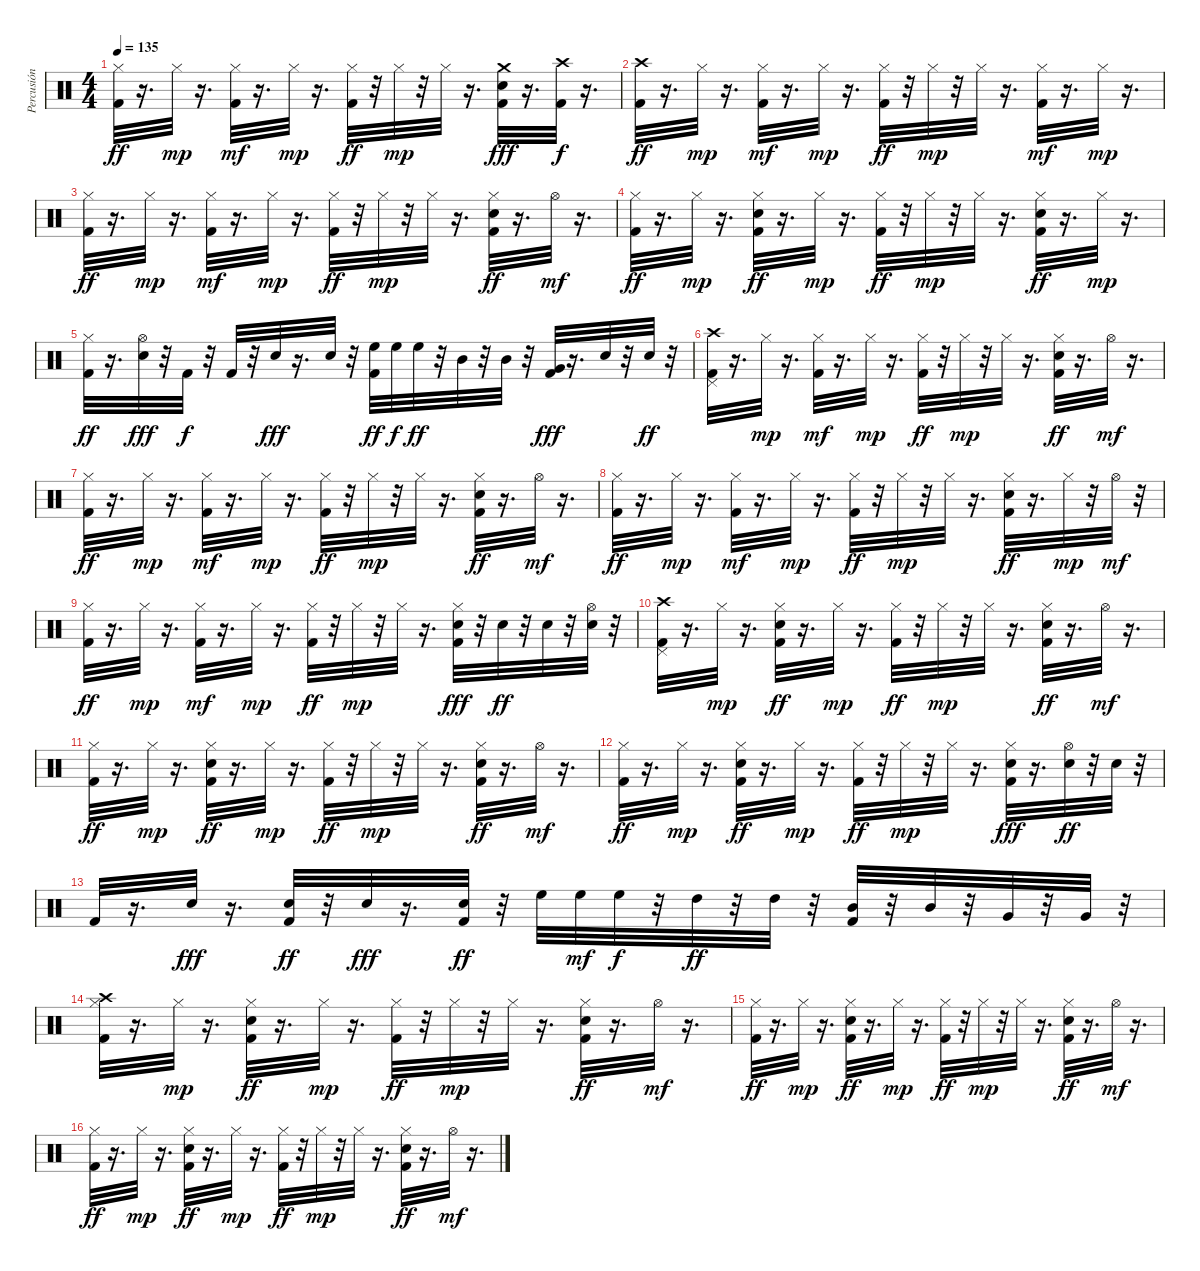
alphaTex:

\track ("Percusión" "Percusión") {instrument percussion}
\staff {score}
\articulation defaults
\ts (4 4)
\tempo 135
\clef neutral
\ks c
("Hi-Hat (closed)" "Kick (hit) 2").32{dy ff} r.16{d} "Hi-Hat (closed)".32{dy mp} r.16{d} ("Hi-Hat (closed)" "Kick (hit) 2").32{dy mf} r.16{d} "Hi-Hat (closed)".32{dy mp} r.16{d} ("Hi-Hat (closed)" "Kick (hit) 2").32{dy ff} r.32 "Hi-Hat (closed)".32{dy mp} r.32 "Hi-Hat (closed)".32 r.16{d} ("Crash medium (hit)" "Electric Snare (hit)" "Kick (hit) 2").32{dy fff} r.16{d} ("Crash high (hit)" "Kick (hit) 2").32{dy f} r.16{d} |
("Crash high (hit)" "Kick (hit) 2").32{dy ff} r.16{d} "Hi-Hat (closed)".32{dy mp} r.16{d} ("Hi-Hat (closed)" "Kick (hit) 2").32{dy mf} r.16{d} "Hi-Hat (closed)".32{dy mp} r.16{d} ("Hi-Hat (closed)" "Kick (hit) 2").32{dy ff} r.32 "Hi-Hat (closed)".32{dy mp} r.32 "Hi-Hat (closed)".32 r.16{d} ("Hi-Hat (closed)" "Kick (hit) 2").32{dy mf} r.16{d} "Hi-Hat (closed)".32{dy mp} r.16{d} |
("Hi-Hat (closed)" "Kick (hit) 2").32{dy ff} r.16{d} "Hi-Hat (closed)".32{dy mp} r.16{d} ("Hi-Hat (closed)" "Kick (hit) 2").32{dy mf} r.16{d} "Hi-Hat (closed)".32{dy mp} r.16{d} ("Hi-Hat (closed)" "Kick (hit) 2").32{dy ff} r.32 "Hi-Hat (closed)".32{dy mp} r.32 "Hi-Hat (closed)".32 r.16{d} ("Hi-Hat (closed)" "Electric Snare (hit)" "Kick (hit) 2").32{dy ff} r.16{d} "Hi-Hat (open)".32{dy mf} r.16{d} |
("Hi-Hat (closed)" "Kick (hit) 2").32{dy ff} r.16{d} "Hi-Hat (closed)".32{dy mp} r.16{d} ("Hi-Hat (closed)" "Electric Snare (hit)" "Kick (hit) 2").32{dy ff} r.16{d} "Hi-Hat (closed)".32{dy mp} r.16{d} ("Hi-Hat (closed)" "Kick (hit) 2").32{dy ff} r.32 "Hi-Hat (closed)".32{dy mp} r.32 "Hi-Hat (closed)".32 r.16{d} ("Hi-Hat (closed)" "Electric Snare (hit)" "Kick (hit) 2").32{dy ff} r.16{d} "Hi-Hat (closed)".32{dy mp} r.16{d} |
("Hi-Hat (closed)" "Kick (hit) 2").32{dy ff} r.16{d} ("Hi-Hat (open)" "Electric Snare (hit)").32{dy fff} r.32 "Kick (hit) 2".32{dy f} r.32 "Kick (hit) 2".32 r.32 "Electric Snare (hit)".32{dy fff} r.16{d} "Electric Snare (hit)".32 r.32 ("High Floor Tom (hit)" "Kick (hit) 2").32{dy ff} "High Floor Tom (hit)".32{dy f} "High Floor Tom (hit)".32{dy ff} r.32 "Mid Tom (hit)".32 r.32 "Mid Tom (hit)".32 r.32 ("Very Low Tom (hit)" "Kick (hit) 2").32{dy fff} r.16{d} "Electric Snare (hit)".32 r.32 "Electric Snare (hit)".32{dy ff} r.32 |
("Crash high (hit)" "Pedal Hi-Hat (hit)" "Kick (hit) 2").32 r.16{d} "Hi-Hat (closed)".32{dy mp} r.16{d} ("Hi-Hat (closed)" "Kick (hit) 2").32{dy mf} r.16{d} "Hi-Hat (closed)".32{dy mp} r.16{d} ("Hi-Hat (closed)" "Kick (hit) 2").32{dy ff} r.32 "Hi-Hat (closed)".32{dy mp} r.32 "Hi-Hat (closed)".32 r.16{d} ("Hi-Hat (closed)" "Electric Snare (hit)" "Kick (hit) 2").32{dy ff} r.16{d} "Hi-Hat (open)".32{dy mf} r.16{d} |
("Hi-Hat (closed)" "Kick (hit) 2").32{dy ff} r.16{d} "Hi-Hat (closed)".32{dy mp} r.16{d} ("Hi-Hat (closed)" "Kick (hit) 2").32{dy mf} r.16{d} "Hi-Hat (closed)".32{dy mp} r.16{d} ("Hi-Hat (closed)" "Kick (hit) 2").32{dy ff} r.32 "Hi-Hat (closed)".32{dy mp} r.32 "Hi-Hat (closed)".32 r.16{d} ("Hi-Hat (closed)" "Electric Snare (hit)" "Kick (hit) 2").32{dy ff} r.16{d} "Hi-Hat (open)".32{dy mf} r.16{d} |
("Hi-Hat (closed)" "Kick (hit) 2").32{dy ff} r.16{d} "Hi-Hat (closed)".32{dy mp} r.16{d} ("Hi-Hat (closed)" "Kick (hit) 2").32{dy mf} r.16{d} "Hi-Hat (closed)".32{dy mp} r.16{d} ("Hi-Hat (closed)" "Kick (hit) 2").32{dy ff} r.32 "Hi-Hat (closed)".32{dy mp} r.32 "Hi-Hat (closed)".32 r.16{d} ("Hi-Hat (closed)" "Electric Snare (hit)" "Kick (hit) 2").32{dy ff} r.16{d} "Hi-Hat (closed)".32{dy mp} r.32 "Hi-Hat (open)".32{dy mf} r.32 |
("Hi-Hat (closed)" "Kick (hit) 2").32{dy ff} r.16{d} "Hi-Hat (closed)".32{dy mp} r.16{d} ("Hi-Hat (closed)" "Kick (hit) 2").32{dy mf} r.16{d} "Hi-Hat (closed)".32{dy mp} r.16{d} ("Hi-Hat (closed)" "Kick (hit) 2").32{dy ff} r.32 "Hi-Hat (closed)".32{dy mp} r.32 "Hi-Hat (closed)".32 r.16{d} ("Hi-Hat (closed)" "Electric Snare (hit)" "Kick (hit) 2").32{dy fff} r.32 "Electric Snare (hit)".32{dy ff} r.32 "Electric Snare (hit)".32 r.32 ("Hi-Hat (open)" "Electric Snare (hit)").32 r.32 |
("Crash high (hit)" "Pedal Hi-Hat (hit)" "Kick (hit) 2").32 r.16{d} "Hi-Hat (closed)".32{dy mp} r.16{d} ("Hi-Hat (closed)" "Electric Snare (hit)" "Kick (hit) 2").32{dy ff} r.16{d} "Hi-Hat (closed)".32{dy mp} r.16{d} ("Hi-Hat (closed)" "Kick (hit) 2").32{dy ff} r.32 "Hi-Hat (closed)".32{dy mp} r.32 "Hi-Hat (closed)".32 r.16{d} ("Hi-Hat (closed)" "Electric Snare (hit)" "Kick (hit) 2").32{dy ff} r.16{d} "Hi-Hat (open)".32{dy mf} r.16{d} |
("Hi-Hat (closed)" "Kick (hit) 2").32{dy ff} r.16{d} "Hi-Hat (closed)".32{dy mp} r.16{d} ("Hi-Hat (closed)" "Electric Snare (hit)" "Kick (hit) 2").32{dy ff} r.16{d} "Hi-Hat (closed)".32{dy mp} r.16{d} ("Hi-Hat (closed)" "Kick (hit) 2").32{dy ff} r.32 "Hi-Hat (closed)".32{dy mp} r.32 "Hi-Hat (closed)".32 r.16{d} ("Hi-Hat (closed)" "Electric Snare (hit)" "Kick (hit) 2").32{dy ff} r.16{d} "Hi-Hat (open)".32{dy mf} r.16{d} |
("Hi-Hat (closed)" "Kick (hit) 2").32{dy ff} r.16{d} "Hi-Hat (closed)".32{dy mp} r.16{d} ("Hi-Hat (closed)" "Electric Snare (hit)" "Kick (hit) 2").32{dy ff} r.16{d} "Hi-Hat (closed)".32{dy mp} r.16{d} ("Hi-Hat (closed)" "Kick (hit) 2").32{dy ff} r.32 "Hi-Hat (closed)".32{dy mp} r.32 "Hi-Hat (closed)".32 r.16{d} ("Hi-Hat (closed)" "Electric Snare (hit)" "Kick (hit) 2").32{dy fff} r.16{d} ("Hi-Hat (open)" "Electric Snare (hit)").32{dy ff} r.32 "Electric Snare (hit)".32 r.32 |
"Kick (hit) 2".32 r.16{d} "Electric Snare (hit)".32{dy fff} r.16{d} ("Electric Snare (hit)" "Kick (hit) 2").32{dy ff} r.32 "Electric Snare (hit)".32{dy fff} r.16{d} ("Electric Snare (hit)" "Kick (hit) 2").32{dy ff} r.32 "High Floor Tom (hit)".32 "High Floor Tom (hit)".32{dy mf} "High Floor Tom (hit)".32{dy f} r.32 "High Tom (hit)".32{dy ff} r.32 "High Tom (hit)".32 r.32 ("Mid Tom (hit)" "Kick (hit) 2").32 r.32 "Mid Tom (hit)".32 r.32 "Very Low Tom (hit)".32 r.32 "Very Low Tom (hit)".32 r.32 |
("Crash high (hit)" "Hi-Hat (closed)" "Kick (hit) 2").32 r.16{d} "Hi-Hat (closed)".32{dy mp} r.16{d} ("Hi-Hat (closed)" "Electric Snare (hit)" "Kick (hit) 2").32{dy ff} r.16{d} "Hi-Hat (closed)".32{dy mp} r.16{d} ("Hi-Hat (closed)" "Kick (hit) 2").32{dy ff} r.32 "Hi-Hat (closed)".32{dy mp} r.32 "Hi-Hat (closed)".32 r.16{d} ("Hi-Hat (closed)" "Electric Snare (hit)" "Kick (hit) 2").32{dy ff} r.16{d} "Hi-Hat (open)".32{dy mf} r.16{d} |
("Hi-Hat (closed)" "Kick (hit) 2").32{dy ff} r.16{d} "Hi-Hat (closed)".32{dy mp} r.16{d} ("Hi-Hat (closed)" "Electric Snare (hit)" "Kick (hit) 2").32{dy ff} r.16{d} "Hi-Hat (closed)".32{dy mp} r.16{d} ("Hi-Hat (closed)" "Kick (hit) 2").32{dy ff} r.32 "Hi-Hat (closed)".32{dy mp} r.32 "Hi-Hat (closed)".32 r.16{d} ("Hi-Hat (closed)" "Electric Snare (hit)" "Kick (hit) 2").32{dy ff} r.16{d} "Hi-Hat (open)".32{dy mf} r.16{d} |
("Hi-Hat (closed)" "Kick (hit) 2").32{dy ff} r.16{d} "Hi-Hat (closed)".32{dy mp} r.16{d} ("Hi-Hat (closed)" "Electric Snare (hit)" "Kick (hit) 2").32{dy ff} r.16{d} "Hi-Hat (closed)".32{dy mp} r.16{d} ("Hi-Hat (closed)" "Kick (hit) 2").32{dy ff} r.32 "Hi-Hat (closed)".32{dy mp} r.32 "Hi-Hat (closed)".32 r.16{d} ("Hi-Hat (closed)" "Electric Snare (hit)" "Kick (hit) 2").32{dy ff} r.16{d} "Hi-Hat (open)".32{dy mf} r.16{d}
